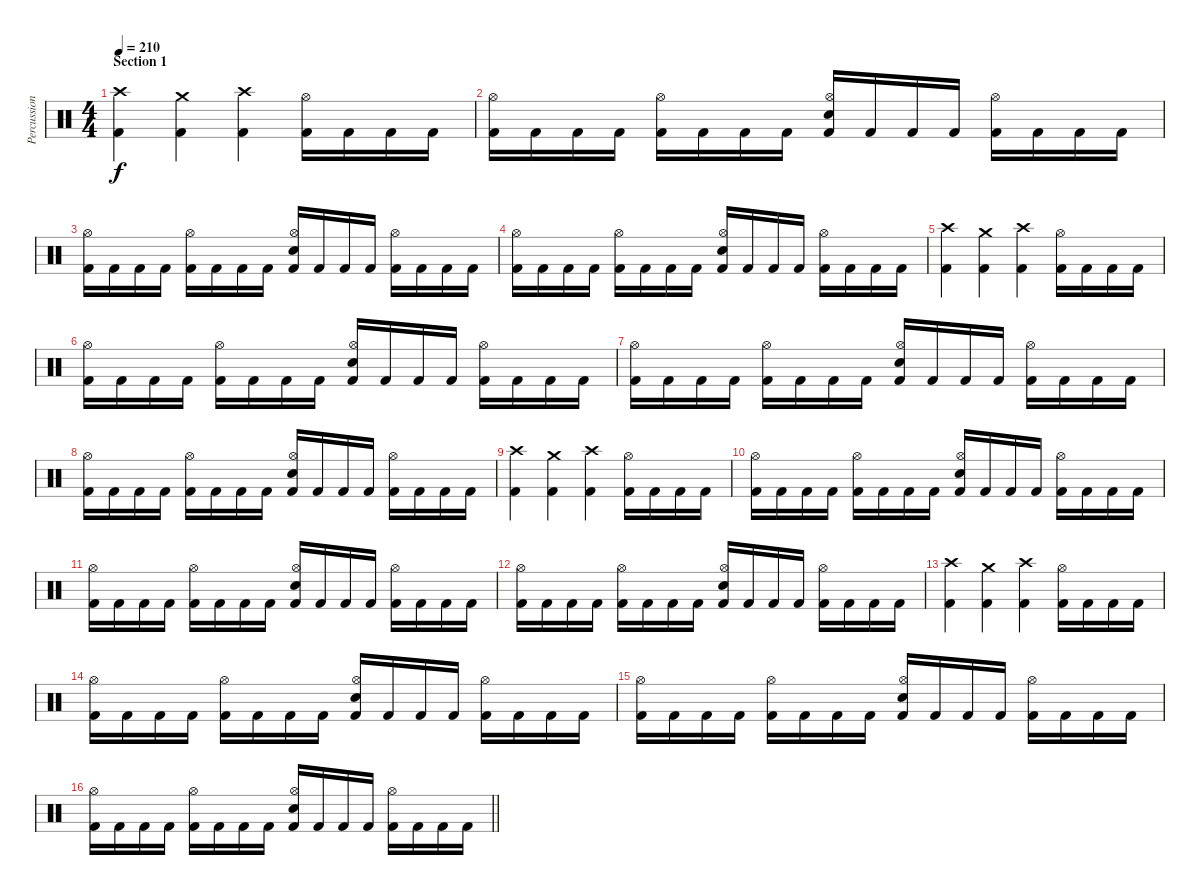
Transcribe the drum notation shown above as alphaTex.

\track ("Percussions" "Percussion") {instrument percussion}
\staff {score}
\articulation defaults
\ts (4 4)
\section ("" "Section 1")
\tempo 210
\clef neutral
\ks c
("Kick (hit) 2" "Crash high (hit)").4{dy f} ("Kick (hit) 2" "Crash medium (hit)").4 ("Kick (hit) 2" "Crash high (hit)").4 ("Kick (hit) 2" "Hi-Hat (open)").16 "Kick (hit) 2".16 "Kick (hit) 2".16 "Kick (hit) 2".16 |
("Kick (hit) 2" "Hi-Hat (open)").16 "Kick (hit) 2".16 "Kick (hit) 2".16 "Kick (hit) 2".16 ("Kick (hit) 2" "Hi-Hat (open)").16 "Kick (hit) 2".16 "Kick (hit) 2".16 "Kick (hit) 2".16 ("Kick (hit) 2" "Electric Snare (hit)" "Hi-Hat (open)").16 "Kick (hit) 2".16 "Kick (hit) 2".16 "Kick (hit) 2".16 ("Kick (hit) 2" "Hi-Hat (open)").16 "Kick (hit) 2".16 "Kick (hit) 2".16 "Kick (hit) 2".16 |
("Kick (hit) 2" "Hi-Hat (open)").16 "Kick (hit) 2".16 "Kick (hit) 2".16 "Kick (hit) 2".16 ("Kick (hit) 2" "Hi-Hat (open)").16 "Kick (hit) 2".16 "Kick (hit) 2".16 "Kick (hit) 2".16 ("Kick (hit) 2" "Electric Snare (hit)" "Hi-Hat (open)").16 "Kick (hit) 2".16 "Kick (hit) 2".16 "Kick (hit) 2".16 ("Kick (hit) 2" "Hi-Hat (open)").16 "Kick (hit) 2".16 "Kick (hit) 2".16 "Kick (hit) 2".16 |
("Kick (hit) 2" "Hi-Hat (open)").16 "Kick (hit) 2".16 "Kick (hit) 2".16 "Kick (hit) 2".16 ("Kick (hit) 2" "Hi-Hat (open)").16 "Kick (hit) 2".16 "Kick (hit) 2".16 "Kick (hit) 2".16 ("Kick (hit) 2" "Electric Snare (hit)" "Hi-Hat (open)").16 "Kick (hit) 2".16 "Kick (hit) 2".16 "Kick (hit) 2".16 ("Kick (hit) 2" "Hi-Hat (open)").16 "Kick (hit) 2".16 "Kick (hit) 2".16 "Kick (hit) 2".16 |
("Kick (hit) 2" "Crash high (hit)").4 ("Kick (hit) 2" "Crash medium (hit)").4 ("Kick (hit) 2" "Crash high (hit)").4 ("Kick (hit) 2" "Hi-Hat (open)").16 "Kick (hit) 2".16 "Kick (hit) 2".16 "Kick (hit) 2".16 |
("Kick (hit) 2" "Hi-Hat (open)").16 "Kick (hit) 2".16 "Kick (hit) 2".16 "Kick (hit) 2".16 ("Kick (hit) 2" "Hi-Hat (open)").16 "Kick (hit) 2".16 "Kick (hit) 2".16 "Kick (hit) 2".16 ("Kick (hit) 2" "Electric Snare (hit)" "Hi-Hat (open)").16 "Kick (hit) 2".16 "Kick (hit) 2".16 "Kick (hit) 2".16 ("Kick (hit) 2" "Hi-Hat (open)").16 "Kick (hit) 2".16 "Kick (hit) 2".16 "Kick (hit) 2".16 |
("Kick (hit) 2" "Hi-Hat (open)").16 "Kick (hit) 2".16 "Kick (hit) 2".16 "Kick (hit) 2".16 ("Kick (hit) 2" "Hi-Hat (open)").16 "Kick (hit) 2".16 "Kick (hit) 2".16 "Kick (hit) 2".16 ("Kick (hit) 2" "Electric Snare (hit)" "Hi-Hat (open)").16 "Kick (hit) 2".16 "Kick (hit) 2".16 "Kick (hit) 2".16 ("Kick (hit) 2" "Hi-Hat (open)").16 "Kick (hit) 2".16 "Kick (hit) 2".16 "Kick (hit) 2".16 |
("Kick (hit) 2" "Hi-Hat (open)").16 "Kick (hit) 2".16 "Kick (hit) 2".16 "Kick (hit) 2".16 ("Kick (hit) 2" "Hi-Hat (open)").16 "Kick (hit) 2".16 "Kick (hit) 2".16 "Kick (hit) 2".16 ("Kick (hit) 2" "Electric Snare (hit)" "Hi-Hat (open)").16 "Kick (hit) 2".16 "Kick (hit) 2".16 "Kick (hit) 2".16 ("Kick (hit) 2" "Hi-Hat (open)").16 "Kick (hit) 2".16 "Kick (hit) 2".16 "Kick (hit) 2".16 |
("Kick (hit) 2" "Crash high (hit)").4 ("Kick (hit) 2" "Crash medium (hit)").4 ("Kick (hit) 2" "Crash high (hit)").4 ("Kick (hit) 2" "Hi-Hat (open)").16 "Kick (hit) 2".16 "Kick (hit) 2".16 "Kick (hit) 2".16 |
("Kick (hit) 2" "Hi-Hat (open)").16 "Kick (hit) 2".16 "Kick (hit) 2".16 "Kick (hit) 2".16 ("Kick (hit) 2" "Hi-Hat (open)").16 "Kick (hit) 2".16 "Kick (hit) 2".16 "Kick (hit) 2".16 ("Kick (hit) 2" "Electric Snare (hit)" "Hi-Hat (open)").16 "Kick (hit) 2".16 "Kick (hit) 2".16 "Kick (hit) 2".16 ("Kick (hit) 2" "Hi-Hat (open)").16 "Kick (hit) 2".16 "Kick (hit) 2".16 "Kick (hit) 2".16 |
("Kick (hit) 2" "Hi-Hat (open)").16 "Kick (hit) 2".16 "Kick (hit) 2".16 "Kick (hit) 2".16 ("Kick (hit) 2" "Hi-Hat (open)").16 "Kick (hit) 2".16 "Kick (hit) 2".16 "Kick (hit) 2".16 ("Kick (hit) 2" "Electric Snare (hit)" "Hi-Hat (open)").16 "Kick (hit) 2".16 "Kick (hit) 2".16 "Kick (hit) 2".16 ("Kick (hit) 2" "Hi-Hat (open)").16 "Kick (hit) 2".16 "Kick (hit) 2".16 "Kick (hit) 2".16 |
("Kick (hit) 2" "Hi-Hat (open)").16 "Kick (hit) 2".16 "Kick (hit) 2".16 "Kick (hit) 2".16 ("Kick (hit) 2" "Hi-Hat (open)").16 "Kick (hit) 2".16 "Kick (hit) 2".16 "Kick (hit) 2".16 ("Kick (hit) 2" "Electric Snare (hit)" "Hi-Hat (open)").16 "Kick (hit) 2".16 "Kick (hit) 2".16 "Kick (hit) 2".16 ("Kick (hit) 2" "Hi-Hat (open)").16 "Kick (hit) 2".16 "Kick (hit) 2".16 "Kick (hit) 2".16 |
("Kick (hit) 2" "Crash high (hit)").4 ("Kick (hit) 2" "Crash medium (hit)").4 ("Kick (hit) 2" "Crash high (hit)").4 ("Kick (hit) 2" "Hi-Hat (open)").16 "Kick (hit) 2".16 "Kick (hit) 2".16 "Kick (hit) 2".16 |
("Kick (hit) 2" "Hi-Hat (open)").16 "Kick (hit) 2".16 "Kick (hit) 2".16 "Kick (hit) 2".16 ("Kick (hit) 2" "Hi-Hat (open)").16 "Kick (hit) 2".16 "Kick (hit) 2".16 "Kick (hit) 2".16 ("Kick (hit) 2" "Electric Snare (hit)" "Hi-Hat (open)").16 "Kick (hit) 2".16 "Kick (hit) 2".16 "Kick (hit) 2".16 ("Kick (hit) 2" "Hi-Hat (open)").16 "Kick (hit) 2".16 "Kick (hit) 2".16 "Kick (hit) 2".16 |
("Kick (hit) 2" "Hi-Hat (open)").16 "Kick (hit) 2".16 "Kick (hit) 2".16 "Kick (hit) 2".16 ("Kick (hit) 2" "Hi-Hat (open)").16 "Kick (hit) 2".16 "Kick (hit) 2".16 "Kick (hit) 2".16 ("Kick (hit) 2" "Electric Snare (hit)" "Hi-Hat (open)").16 "Kick (hit) 2".16 "Kick (hit) 2".16 "Kick (hit) 2".16 ("Kick (hit) 2" "Hi-Hat (open)").16 "Kick (hit) 2".16 "Kick (hit) 2".16 "Kick (hit) 2".16 |
\barLineRight lightlight
("Kick (hit) 2" "Hi-Hat (open)").16 "Kick (hit) 2".16 "Kick (hit) 2".16 "Kick (hit) 2".16 ("Kick (hit) 2" "Hi-Hat (open)").16 "Kick (hit) 2".16 "Kick (hit) 2".16 "Kick (hit) 2".16 ("Kick (hit) 2" "Electric Snare (hit)" "Hi-Hat (open)").16 "Kick (hit) 2".16 "Kick (hit) 2".16 "Kick (hit) 2".16 ("Kick (hit) 2" "Hi-Hat (open)").16 "Kick (hit) 2".16 "Kick (hit) 2".16 "Kick (hit) 2".16
